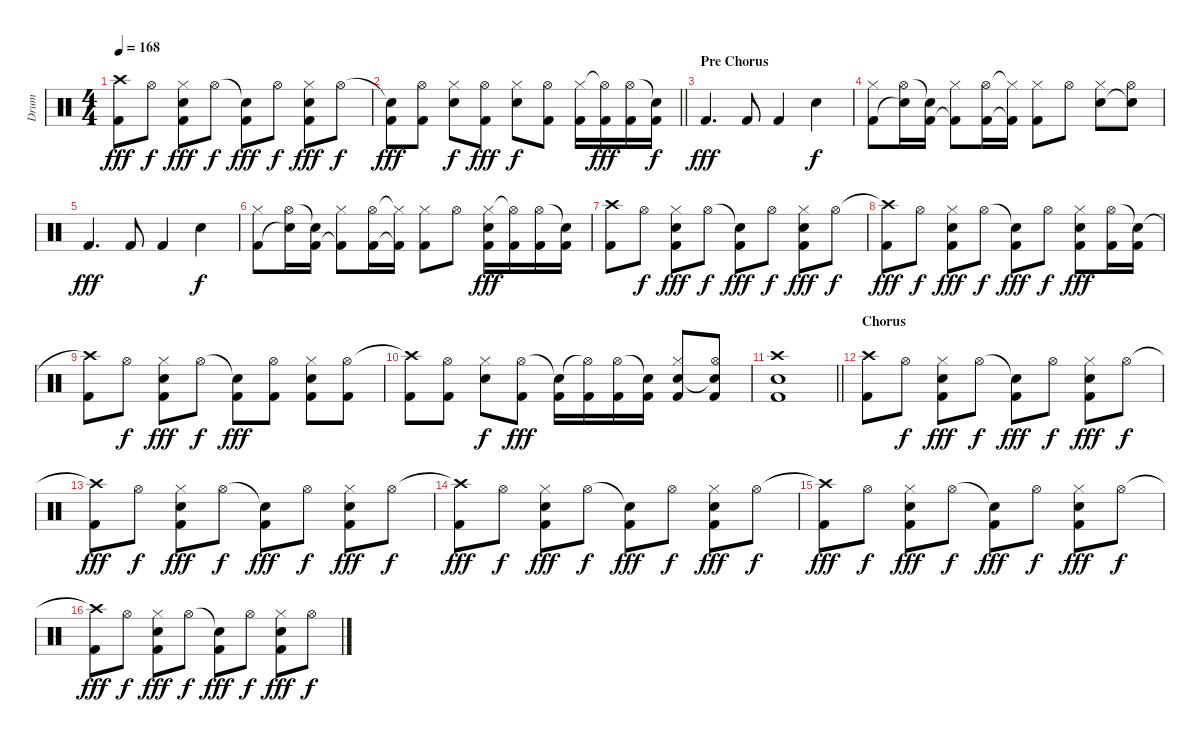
\track ("Drum" "Drum") {instrument percussion}
\staff {score}
\articulation defaults
\ts (4 4)
\tempo 168
\clef neutral
\ks c
("Crash high (hit)"{t} "Kick (hit) 2").8{dy fff} "Hi-Hat (open)".8{dy f} ("Hi-Hat (closed)" "Snare (hit) 2" "Kick (hit) 2").8{dy fff} "Hi-Hat (open)".8{dy f} ("Snare (hit)"{t} "Kick (hit) 2").8{dy fff} "Hi-Hat (open)".8{dy f} ("Hi-Hat (closed)" "Snare (hit) 2" "Kick (hit) 2").8{dy fff} "Hi-Hat (open)".8{dy f} |
\barLineRight lightlight
("Snare (hit)"{t} "Kick (hit) 2").8{dy fff} ("Hi-Hat (open)" "Kick (hit) 2").8 ("Hi-Hat (closed)" "Snare (hit) 2").8{dy f} ("Hi-Hat (open)" "Kick (hit) 2").8{dy fff} ("Hi-Hat (closed)" "Snare (hit) 2").8{dy f} ("Hi-Hat (open)" "Kick (hit) 2").8 ("Hi-Hat (closed)" "Kick (hit) 2").16 ("Hi-Hat (open)"{t} "Kick (hit) 2").16{dy fff} ("Hi-Hat (open)" "Kick (hit) 2").16 ("Snare (hit)"{t} "Kick (hit) 2").16{dy f} |
\section ("" "Pre Chorus")
"Kick (hit) 2".4{d dy fff} "Kick (hit) 2".8 "Kick (hit) 2".4 "Snare (hit) 2".4{dy f} |
("Hi-Hat (closed)" "Kick (hit) 2").8 ("Hi-Hat (open)" "Snare (hit)"{t}).16 ("Snare (hit)"{t} "Kick (hit) 2").16 ("Hi-Hat (closed)" "Kick (hit) 2"{t}).8 ("Hi-Hat (open)" "Kick (hit) 2").16 ("Hi-Hat (closed)"{t} "Kick (hit) 2"{t}).16 ("Hi-Hat (closed)" "Kick (hit) 2").8 "Hi-Hat (open)".8 ("Hi-Hat (closed)" "Snare (hit) 2").8 ("Hi-Hat (open)" "Snare (hit)"{t}).8 |
"Kick (hit) 2".4{d dy fff} "Kick (hit) 2".8 "Kick (hit) 2".4 "Snare (hit) 2".4{dy f} |
("Hi-Hat (closed)" "Kick (hit) 2").8 ("Hi-Hat (open)" "Snare (hit)"{t}).16 ("Snare (hit)"{t} "Kick (hit) 2").16 ("Hi-Hat (closed)" "Kick (hit) 2"{t}).8 ("Hi-Hat (open)" "Kick (hit) 2").16 ("Hi-Hat (closed)"{t} "Kick (hit) 2"{t}).16 ("Hi-Hat (closed)" "Kick (hit) 2").8 "Hi-Hat (open)".8 ("Hi-Hat (closed)" "Snare (hit) 2" "Kick (hit) 2").16{dy fff} ("Hi-Hat (open)"{t} "Kick (hit) 2").16 ("Hi-Hat (open)" "Kick (hit) 2").16 ("Snare (hit)"{t} "Kick (hit) 2").16 |
("Crash high (hit)" "Kick (hit) 2").8 "Hi-Hat (open)".8{dy f} ("Hi-Hat (closed)" "Snare (hit) 2" "Kick (hit) 2").8{dy fff} "Hi-Hat (open)".8{dy f} ("Snare (hit)"{t} "Kick (hit) 2").8{dy fff} "Hi-Hat (open)".8{dy f} ("Hi-Hat (closed)" "Snare (hit) 2" "Kick (hit) 2").8{dy fff} "Hi-Hat (open)".8{dy f} |
("Crash high (hit)"{t} "Kick (hit) 2").8{dy fff} "Hi-Hat (open)".8{dy f} ("Hi-Hat (closed)" "Snare (hit) 2" "Kick (hit) 2").8{dy fff} "Hi-Hat (open)".8{dy f} ("Snare (hit)"{t} "Kick (hit) 2").8{dy fff} "Hi-Hat (open)".8{dy f} ("Hi-Hat (closed)" "Snare (hit) 2" "Kick (hit) 2").8{dy fff} ("Hi-Hat (open)" "Kick (hit) 2").16 ("Snare (hit)"{t} "Kick (hit) 2").16 |
("Crash high (hit)"{t} "Kick (hit) 2").8 "Hi-Hat (open)".8{dy f} ("Hi-Hat (closed)" "Snare (hit) 2" "Kick (hit) 2").8{dy fff} "Hi-Hat (open)".8{dy f} ("Snare (hit)"{t} "Kick (hit) 2").8{dy fff} ("Hi-Hat (open)" "Kick (hit) 2").8 ("Hi-Hat (closed)" "Snare (hit) 2" "Kick (hit) 2").8 ("Hi-Hat (open)" "Kick (hit) 2").8 |
("Crash high (hit)"{t} "Kick (hit) 2").8 ("Hi-Hat (open)" "Kick (hit) 2").8 ("Hi-Hat (closed)" "Snare (hit) 2").8{dy f} ("Hi-Hat (open)" "Kick (hit) 2").8{dy fff} ("Snare (hit)"{t} "Kick (hit) 2").16 ("Hi-Hat (open)"{t} "Kick (hit) 2").16 ("Hi-Hat (open)" "Kick (hit) 2").16 ("Snare (hit)"{t} "Kick (hit) 2").16 ("Hi-Hat (closed)" "Snare (hit) 2" "Kick (hit) 2").8 ("Hi-Hat (open)" "Snare (hit)"{t} "Kick (hit) 2").8 |
\barLineRight lightlight
("Crash high (hit)" "Snare (hit) 2" "Kick (hit) 2").1 |
\section ("" "Chorus")
("Crash high (hit)" "Kick (hit) 2").8 "Hi-Hat (open)".8{dy f} ("Hi-Hat (closed)" "Snare (hit) 2" "Kick (hit) 2").8{dy fff} "Hi-Hat (open)".8{dy f} ("Snare (hit)"{t} "Kick (hit) 2").8{dy fff} "Hi-Hat (open)".8{dy f} ("Hi-Hat (closed)" "Snare (hit) 2" "Kick (hit) 2").8{dy fff} "Hi-Hat (open)".8{dy f} |
("Crash high (hit)"{t} "Kick (hit) 2").8{dy fff} "Hi-Hat (open)".8{dy f} ("Hi-Hat (closed)" "Snare (hit) 2" "Kick (hit) 2").8{dy fff} "Hi-Hat (open)".8{dy f} ("Snare (hit)"{t} "Kick (hit) 2").8{dy fff} "Hi-Hat (open)".8{dy f} ("Hi-Hat (closed)" "Snare (hit) 2" "Kick (hit) 2").8{dy fff} "Hi-Hat (open)".8{dy f} |
("Crash high (hit)"{t} "Kick (hit) 2").8{dy fff} "Hi-Hat (open)".8{dy f} ("Hi-Hat (closed)" "Snare (hit) 2" "Kick (hit) 2").8{dy fff} "Hi-Hat (open)".8{dy f} ("Snare (hit)"{t} "Kick (hit) 2").8{dy fff} "Hi-Hat (open)".8{dy f} ("Hi-Hat (closed)" "Snare (hit) 2" "Kick (hit) 2").8{dy fff} "Hi-Hat (open)".8{dy f} |
("Crash high (hit)"{t} "Kick (hit) 2").8{dy fff} "Hi-Hat (open)".8{dy f} ("Hi-Hat (closed)" "Snare (hit) 2" "Kick (hit) 2").8{dy fff} "Hi-Hat (open)".8{dy f} ("Snare (hit)"{t} "Kick (hit) 2").8{dy fff} "Hi-Hat (open)".8{dy f} ("Hi-Hat (closed)" "Snare (hit) 2" "Kick (hit) 2").8{dy fff} "Hi-Hat (open)".8{dy f} |
("Crash high (hit)"{t} "Kick (hit) 2").8{dy fff} "Hi-Hat (open)".8{dy f} ("Hi-Hat (closed)" "Snare (hit) 2" "Kick (hit) 2").8{dy fff} "Hi-Hat (open)".8{dy f} ("Snare (hit)"{t} "Kick (hit) 2").8{dy fff} "Hi-Hat (open)".8{dy f} ("Hi-Hat (closed)" "Snare (hit) 2" "Kick (hit) 2").8{dy fff} "Hi-Hat (open)".8{dy f}
